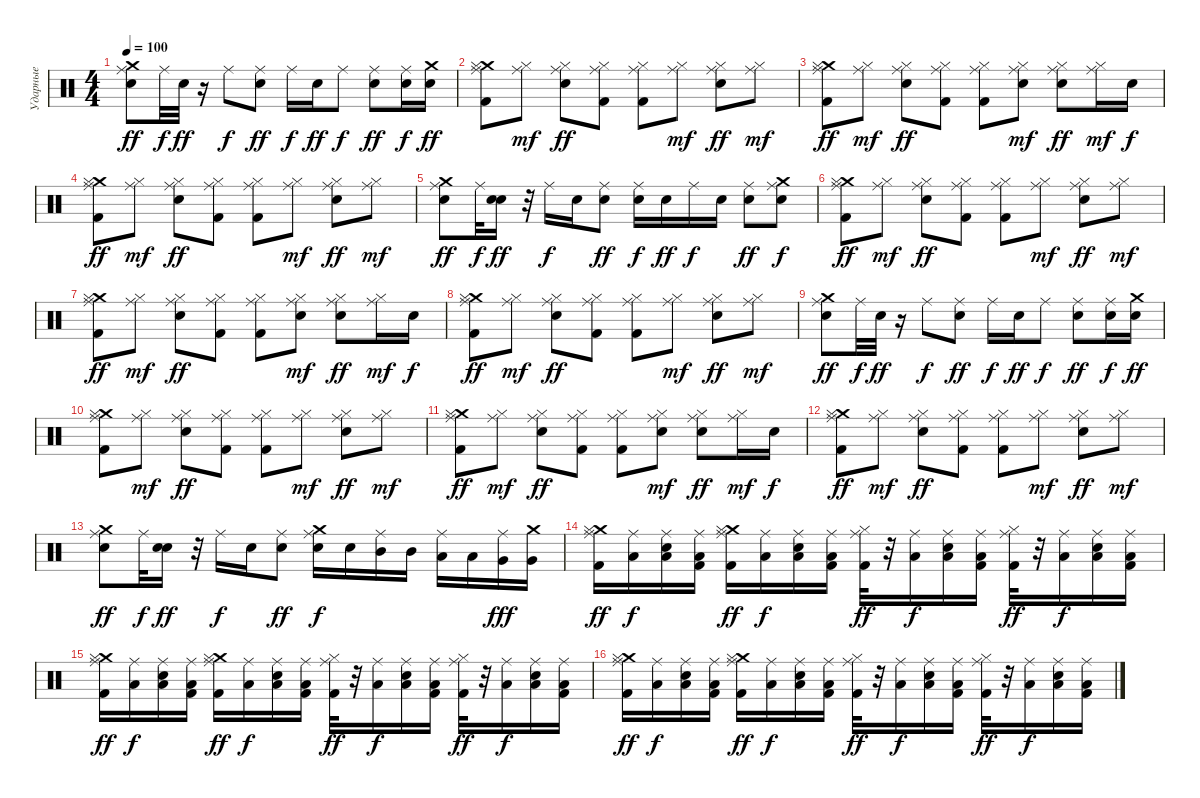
\track ("Ударные" "Ударные") {instrument percussion}
\staff {score}
\articulation defaults
\ts (4 4)
\tempo 100
\clef neutral
\ks c
("Crash medium (hit)" "Ride (middle)" "Snare (hit) 2").8{dy ff} "Ride (middle)".32{dy f} "Snare (hit) 2".32{dy ff} r.16 "Ride (middle)".8{dy f} ("Ride (middle)" "Snare (hit) 2").8{dy ff} "Ride (middle)".16{dy f} "Snare (hit) 2".16{dy ff} "Ride (middle)".8{dy f} ("Ride (middle)" "Snare (hit) 2").8{dy ff} ("Snare (hit) 2" "Ride (middle)").16{dy f} ("Crash medium (hit)" "Snare (hit) 2").16{dy ff} |
("Ride (middle)" "Crash medium (hit)" "Hi-Hat (closed)" "Kick (hit) 2").8 ("Ride (middle)" "Hi-Hat (closed)").8{dy mf} ("Ride (middle)" "Hi-Hat (closed)" "Snare (hit) 2").8{dy ff} ("Ride (middle)" "Hi-Hat (closed)" "Kick (hit) 2").8 ("Ride (middle)" "Hi-Hat (closed)" "Kick (hit) 2").8 ("Ride (middle)" "Hi-Hat (closed)").8{dy mf} ("Ride (middle)" "Hi-Hat (closed)" "Snare (hit) 2").8{dy ff} ("Ride (middle)" "Hi-Hat (closed)").8{dy mf} |
("Ride (middle)" "Crash medium (hit)" "Hi-Hat (closed)" "Kick (hit) 2").8{dy ff} ("Ride (middle)" "Hi-Hat (closed)").8{dy mf} ("Ride (middle)" "Hi-Hat (closed)" "Snare (hit) 2").8{dy ff} ("Ride (middle)" "Hi-Hat (closed)" "Kick (hit) 2").8 ("Ride (middle)" "Hi-Hat (closed)" "Kick (hit) 2").8 ("Snare (hit) 2" "Ride (middle)" "Hi-Hat (closed)").8{dy mf} ("Ride (middle)" "Hi-Hat (closed)" "Snare (hit) 2").8{dy ff} ("Ride (middle)" "Hi-Hat (closed)").16{dy mf} "Electric Snare (hit)".16{dy f} |
("Ride (middle)" "Crash medium (hit)" "Hi-Hat (closed)" "Kick (hit) 2").8{dy ff} ("Ride (middle)" "Hi-Hat (closed)").8{dy mf} ("Ride (middle)" "Hi-Hat (closed)" "Snare (hit) 2").8{dy ff} ("Ride (middle)" "Hi-Hat (closed)" "Kick (hit) 2").8 ("Ride (middle)" "Hi-Hat (closed)" "Kick (hit) 2").8 ("Ride (middle)" "Hi-Hat (closed)").8{dy mf} ("Ride (middle)" "Hi-Hat (closed)" "Snare (hit) 2").8{dy ff} ("Ride (middle)" "Hi-Hat (closed)").8{dy mf} |
("Crash medium (hit)" "Ride (middle)" "Snare (hit) 2").8{dy ff} "Ride (middle)".32{dy f} ("Electric Snare (hit)" "Snare (hit) 2").16{dy ff} r.32 "Ride (middle)".16{dy f} "Snare (hit) 2".16 ("Ride (middle)" "Snare (hit) 2").8{dy ff} ("Snare (hit) 2" "Ride (middle)").16{dy f} "Snare (hit) 2".16{dy ff} "Ride (middle)".16{dy f} "Snare (hit) 2".16 ("Ride (middle)" "Snare (hit) 2").8{dy ff} ("Crash medium (hit)" "Snare (hit) 2" "Ride (middle)").8{dy f} |
("Ride (middle)" "Crash medium (hit)" "Hi-Hat (closed)" "Kick (hit) 2").8{dy ff} ("Ride (middle)" "Hi-Hat (closed)").8{dy mf} ("Ride (middle)" "Hi-Hat (closed)" "Snare (hit) 2").8{dy ff} ("Ride (middle)" "Hi-Hat (closed)" "Kick (hit) 2").8 ("Ride (middle)" "Hi-Hat (closed)" "Kick (hit) 2").8 ("Ride (middle)" "Hi-Hat (closed)").8{dy mf} ("Ride (middle)" "Hi-Hat (closed)" "Snare (hit) 2").8{dy ff} ("Ride (middle)" "Hi-Hat (closed)").8{dy mf} |
("Ride (middle)" "Crash medium (hit)" "Hi-Hat (closed)" "Kick (hit) 2").8{dy ff} ("Ride (middle)" "Hi-Hat (closed)").8{dy mf} ("Ride (middle)" "Hi-Hat (closed)" "Snare (hit) 2").8{dy ff} ("Ride (middle)" "Hi-Hat (closed)" "Kick (hit) 2").8 ("Ride (middle)" "Hi-Hat (closed)" "Kick (hit) 2").8 ("Snare (hit) 2" "Ride (middle)" "Hi-Hat (closed)").8{dy mf} ("Ride (middle)" "Hi-Hat (closed)" "Snare (hit) 2").8{dy ff} ("Ride (middle)" "Hi-Hat (closed)").16{dy mf} "Electric Snare (hit)".16{dy f} |
("Ride (middle)" "Crash medium (hit)" "Hi-Hat (closed)" "Kick (hit) 2").8{dy ff} ("Ride (middle)" "Hi-Hat (closed)").8{dy mf} ("Ride (middle)" "Hi-Hat (closed)" "Snare (hit) 2").8{dy ff} ("Ride (middle)" "Hi-Hat (closed)" "Kick (hit) 2").8 ("Ride (middle)" "Hi-Hat (closed)" "Kick (hit) 2").8 ("Ride (middle)" "Hi-Hat (closed)").8{dy mf} ("Ride (middle)" "Hi-Hat (closed)" "Snare (hit) 2").8{dy ff} ("Ride (middle)" "Hi-Hat (closed)").8{dy mf} |
("Crash medium (hit)" "Ride (middle)" "Snare (hit) 2").8{dy ff} "Ride (middle)".32{dy f} "Snare (hit) 2".32{dy ff} r.16 "Ride (middle)".8{dy f} ("Ride (middle)" "Snare (hit) 2").8{dy ff} "Ride (middle)".16{dy f} "Snare (hit) 2".16{dy ff} "Ride (middle)".8{dy f} ("Ride (middle)" "Snare (hit) 2").8{dy ff} ("Snare (hit) 2" "Ride (middle)").16{dy f} ("Crash medium (hit)" "Snare (hit) 2").16{dy ff} |
("Ride (middle)" "Crash medium (hit)" "Hi-Hat (closed)" "Kick (hit) 2").8 ("Ride (middle)" "Hi-Hat (closed)").8{dy mf} ("Ride (middle)" "Hi-Hat (closed)" "Snare (hit) 2").8{dy ff} ("Ride (middle)" "Hi-Hat (closed)" "Kick (hit) 2").8 ("Ride (middle)" "Hi-Hat (closed)" "Kick (hit) 2").8 ("Ride (middle)" "Hi-Hat (closed)").8{dy mf} ("Ride (middle)" "Hi-Hat (closed)" "Snare (hit) 2").8{dy ff} ("Ride (middle)" "Hi-Hat (closed)").8{dy mf} |
("Ride (middle)" "Crash medium (hit)" "Hi-Hat (closed)" "Kick (hit) 2").8{dy ff} ("Ride (middle)" "Hi-Hat (closed)").8{dy mf} ("Ride (middle)" "Hi-Hat (closed)" "Snare (hit) 2").8{dy ff} ("Ride (middle)" "Hi-Hat (closed)" "Kick (hit) 2").8 ("Ride (middle)" "Hi-Hat (closed)" "Kick (hit) 2").8 ("Snare (hit) 2" "Ride (middle)" "Hi-Hat (closed)").8{dy mf} ("Ride (middle)" "Hi-Hat (closed)" "Snare (hit) 2").8{dy ff} ("Ride (middle)" "Hi-Hat (closed)").16{dy mf} "Electric Snare (hit)".16{dy f} |
("Ride (middle)" "Crash medium (hit)" "Hi-Hat (closed)" "Kick (hit) 2").8{dy ff} ("Ride (middle)" "Hi-Hat (closed)").8{dy mf} ("Ride (middle)" "Hi-Hat (closed)" "Snare (hit) 2").8{dy ff} ("Ride (middle)" "Hi-Hat (closed)" "Kick (hit) 2").8 ("Ride (middle)" "Hi-Hat (closed)" "Kick (hit) 2").8 ("Ride (middle)" "Hi-Hat (closed)").8{dy mf} ("Ride (middle)" "Hi-Hat (closed)" "Snare (hit) 2").8{dy ff} ("Ride (middle)" "Hi-Hat (closed)").8{dy mf} |
("Crash medium (hit)" "Ride (middle)" "Snare (hit) 2").8{dy ff} "Ride (middle)".32{dy f} ("Electric Snare (hit)" "Snare (hit) 2").16{dy ff} r.32 "Ride (middle)".16{dy f} "Snare (hit) 2".16 ("Ride (middle)" "Snare (hit) 2").8{dy ff} ("Ride (middle)" "Crash medium (hit)" "Snare (hit) 2").16{dy f} "Snare (hit) 2".16 ("Ride (middle)" "Mid Tom (hit)").16 "Mid Tom (hit)".16 ("Ride (middle)" "Low Tom (hit)").16 "Low Tom (hit)".16 ("Ride (middle)" "Very Low Tom (hit)").16{dy fff} ("Crash medium (hit)" "Very Low Tom (hit)").16 |
("Crash medium (hit)" "Ride (middle)" "Hi-Hat (closed)" "Kick (hit) 2").16{dy ff} ("Ride (middle)" "Low Floor Tom (hit)").16{dy f} ("Ride (middle)" "Low Floor Tom (hit)" "Snare (hit) 2").16 ("Ride (middle)" "Low Floor Tom (hit)" "Kick (hit) 2").16 ("Crash medium (hit)" "Ride (middle)" "Hi-Hat (closed)" "Kick (hit) 2").16{dy ff} ("Ride (middle)" "Low Floor Tom (hit)").16{dy f} ("Ride (middle)" "Low Floor Tom (hit)" "Snare (hit) 2").16 ("Ride (middle)" "Low Floor Tom (hit)" "Kick (hit) 2").16 ("Ride (middle)" "Hi-Hat (closed)" "Kick (hit) 2").32{dy ff} r.32 ("Ride (middle)" "Low Floor Tom (hit)").16{dy f} ("Ride (middle)" "Low Floor Tom (hit)" "Snare (hit) 2").16 ("Ride (middle)" "Low Floor Tom (hit)" "Kick (hit) 2").16 ("Ride (middle)" "Hi-Hat (closed)" "Kick (hit) 2").32{dy ff} r.32 ("Ride (middle)" "Low Floor Tom (hit)").16{dy f} ("Ride (middle)" "Low Floor Tom (hit)" "Snare (hit) 2").16 ("Ride (middle)" "Low Floor Tom (hit)" "Kick (hit) 2").16 |
("Crash medium (hit)" "Ride (middle)" "Hi-Hat (closed)" "Kick (hit) 2").16{dy ff} ("Ride (middle)" "Low Floor Tom (hit)").16{dy f} ("Ride (middle)" "Low Floor Tom (hit)" "Snare (hit) 2").16 ("Ride (middle)" "Low Floor Tom (hit)" "Kick (hit) 2").16 ("Crash medium (hit)" "Ride (middle)" "Hi-Hat (closed)" "Kick (hit) 2").16{dy ff} ("Ride (middle)" "Low Floor Tom (hit)").16{dy f} ("Ride (middle)" "Low Floor Tom (hit)" "Snare (hit) 2").16 ("Ride (middle)" "Low Floor Tom (hit)" "Kick (hit) 2").16 ("Ride (middle)" "Hi-Hat (closed)" "Kick (hit) 2").32{dy ff} r.32 ("Ride (middle)" "Low Floor Tom (hit)").16{dy f} ("Ride (middle)" "Low Floor Tom (hit)" "Snare (hit) 2").16 ("Ride (middle)" "Low Floor Tom (hit)" "Kick (hit) 2").16 ("Ride (middle)" "Hi-Hat (closed)" "Kick (hit) 2").32{dy ff} r.32 ("Ride (middle)" "Low Floor Tom (hit)").16{dy f} ("Ride (middle)" "Low Floor Tom (hit)" "Snare (hit) 2").16 ("Ride (middle)" "Low Floor Tom (hit)" "Kick (hit) 2").16 |
("Crash medium (hit)" "Ride (middle)" "Hi-Hat (closed)" "Kick (hit) 2").16{dy ff} ("Ride (middle)" "Low Floor Tom (hit)").16{dy f} ("Ride (middle)" "Low Floor Tom (hit)" "Snare (hit) 2").16 ("Ride (middle)" "Low Floor Tom (hit)" "Kick (hit) 2").16 ("Crash medium (hit)" "Ride (middle)" "Hi-Hat (closed)" "Kick (hit) 2").16{dy ff} ("Ride (middle)" "Low Floor Tom (hit)").16{dy f} ("Ride (middle)" "Low Floor Tom (hit)" "Snare (hit) 2").16 ("Ride (middle)" "Low Floor Tom (hit)" "Kick (hit) 2").16 ("Ride (middle)" "Hi-Hat (closed)" "Kick (hit) 2").32{dy ff} r.32 ("Ride (middle)" "Low Floor Tom (hit)").16{dy f} ("Ride (middle)" "Low Floor Tom (hit)" "Snare (hit) 2").16 ("Ride (middle)" "Low Floor Tom (hit)" "Kick (hit) 2").16 ("Ride (middle)" "Hi-Hat (closed)" "Kick (hit) 2").32{dy ff} r.32 ("Ride (middle)" "Low Floor Tom (hit)").16{dy f} ("Ride (middle)" "Low Floor Tom (hit)" "Snare (hit) 2").16 ("Ride (middle)" "Low Floor Tom (hit)" "Kick (hit) 2").16
